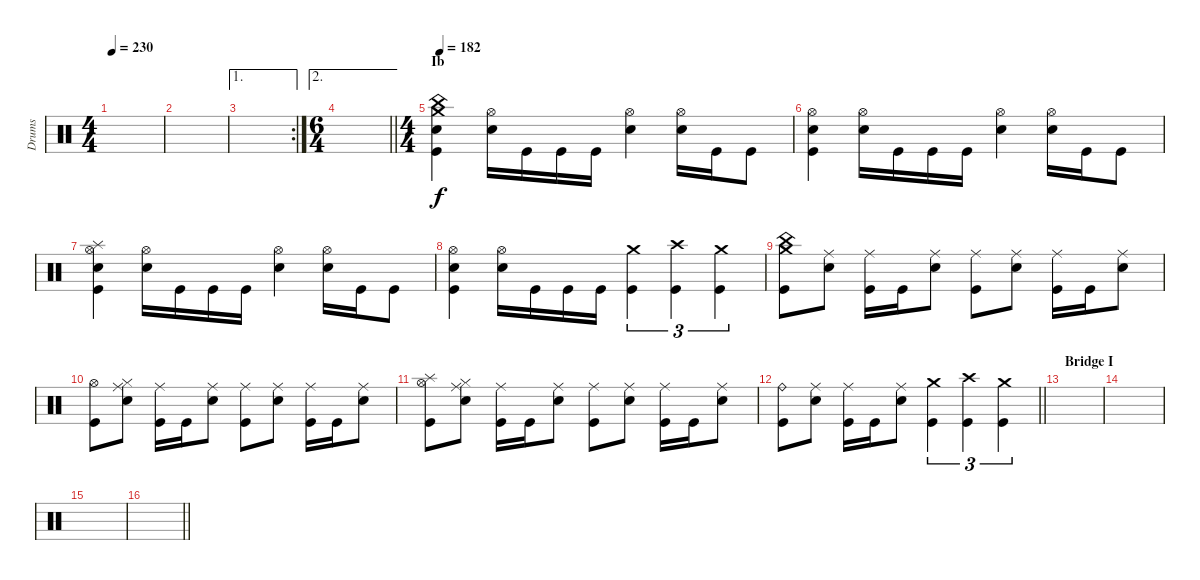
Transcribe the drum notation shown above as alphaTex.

\track ("Drums" "Drums") {instrument percussion}
\staff {score}
\articulation defaults
\ts (4 4)
\tempo 230
\clef neutral
\ks c
|
|
\ae 1
\rc 2
|
\ae 2
\ts (6 4)
\barLineRight lightlight
|
\ts (4 4)
\section ("" "Ib")
\tempo 182
("China (hit)" "Crash medium (hit)" "Electric Snare (hit)" "Kick (hit)").4{dy f} ("Hi-Hat (open)" "Electric Snare (hit)").16 "Kick (hit)".16 "Kick (hit)".16 "Kick (hit)".16 ("Hi-Hat (open)" "Electric Snare (hit)").4 ("Hi-Hat (open)" "Electric Snare (hit)").16 "Kick (hit)".16 "Kick (hit)".8 |
("Hi-Hat (open)" "Electric Snare (hit)" "Kick (hit)").4 ("Hi-Hat (open)" "Electric Snare (hit)").16 "Kick (hit)".16 "Kick (hit)".16 "Kick (hit)".16 ("Hi-Hat (open)" "Electric Snare (hit)").4 ("Hi-Hat (open)" "Electric Snare (hit)").16 "Kick (hit)".16 "Kick (hit)".8 |
("Splash (hit)" "Hi-Hat (open)" "Electric Snare (hit)" "Kick (hit)").4 ("Hi-Hat (open)" "Electric Snare (hit)").16 "Kick (hit)".16 "Kick (hit)".16 "Kick (hit)".16 ("Hi-Hat (open)" "Electric Snare (hit)").4 ("Hi-Hat (open)" "Electric Snare (hit)").16 "Kick (hit)".16 "Kick (hit)".8 |
("Hi-Hat (open)" "Electric Snare (hit)" "Kick (hit)").4 ("Hi-Hat (open)" "Electric Snare (hit)").16 "Kick (hit)".16 "Kick (hit)".16 "Kick (hit)".16 ("Crash medium (hit)" "Kick (hit)").4{tu (3 2)} ("Crash high (hit)" "Kick (hit)").4{tu (3 2)} ("Crash medium (hit)" "Kick (hit)").4{tu (3 2)} |
("China (hit)" "Crash medium (hit)" "Kick (hit)").8 ("Ride (middle)" "Electric Snare (hit)").8 ("Ride (middle)" "Kick (hit)").16 "Kick (hit)".16 ("Ride (middle)" "Electric Snare (hit)").8 ("Ride (middle)" "Kick (hit)").8 ("Ride (middle)" "Electric Snare (hit)").8 ("Ride (middle)" "Kick (hit)").16 "Kick (hit)".16 ("Ride (middle)" "Electric Snare (hit)").8 |
("Hi-Hat (open)" "Kick (hit)").8 ("Ride (middle)" "Hi-Hat (closed)" "Electric Snare (hit)").8 ("Ride (middle)" "Kick (hit)").16 "Kick (hit)".16 ("Ride (middle)" "Electric Snare (hit)").8 ("Ride (middle)" "Kick (hit)").8 ("Ride (middle)" "Electric Snare (hit)").8 ("Ride (middle)" "Kick (hit)").16 "Kick (hit)".16 ("Ride (middle)" "Electric Snare (hit)").8 |
("Splash (hit)" "Hi-Hat (open)" "Kick (hit)").8 ("Ride (middle)" "Hi-Hat (closed)" "Electric Snare (hit)").8 ("Ride (middle)" "Kick (hit)").16 "Kick (hit)".16 ("Ride (middle)" "Electric Snare (hit)").8 ("Ride (middle)" "Kick (hit)").8 ("Ride (middle)" "Electric Snare (hit)").8 ("Ride (middle)" "Kick (hit)").16 "Kick (hit)".16 ("Ride (middle)" "Electric Snare (hit)").8 |
\barLineRight lightlight
("Ride (bell)" "Kick (hit)").8 ("Ride (middle)" "Electric Snare (hit)").8 ("Ride (middle)" "Kick (hit)").16 "Kick (hit)".16 ("Ride (middle)" "Electric Snare (hit)").8 ("Crash medium (hit)" "Kick (hit)").4{tu (3 2)} ("Crash high (hit)" "Kick (hit)").4{tu (3 2)} ("Crash medium (hit)" "Kick (hit)").4{tu (3 2)} |
\section ("" "Bridge I")
|
|
|
\barLineRight lightlight
